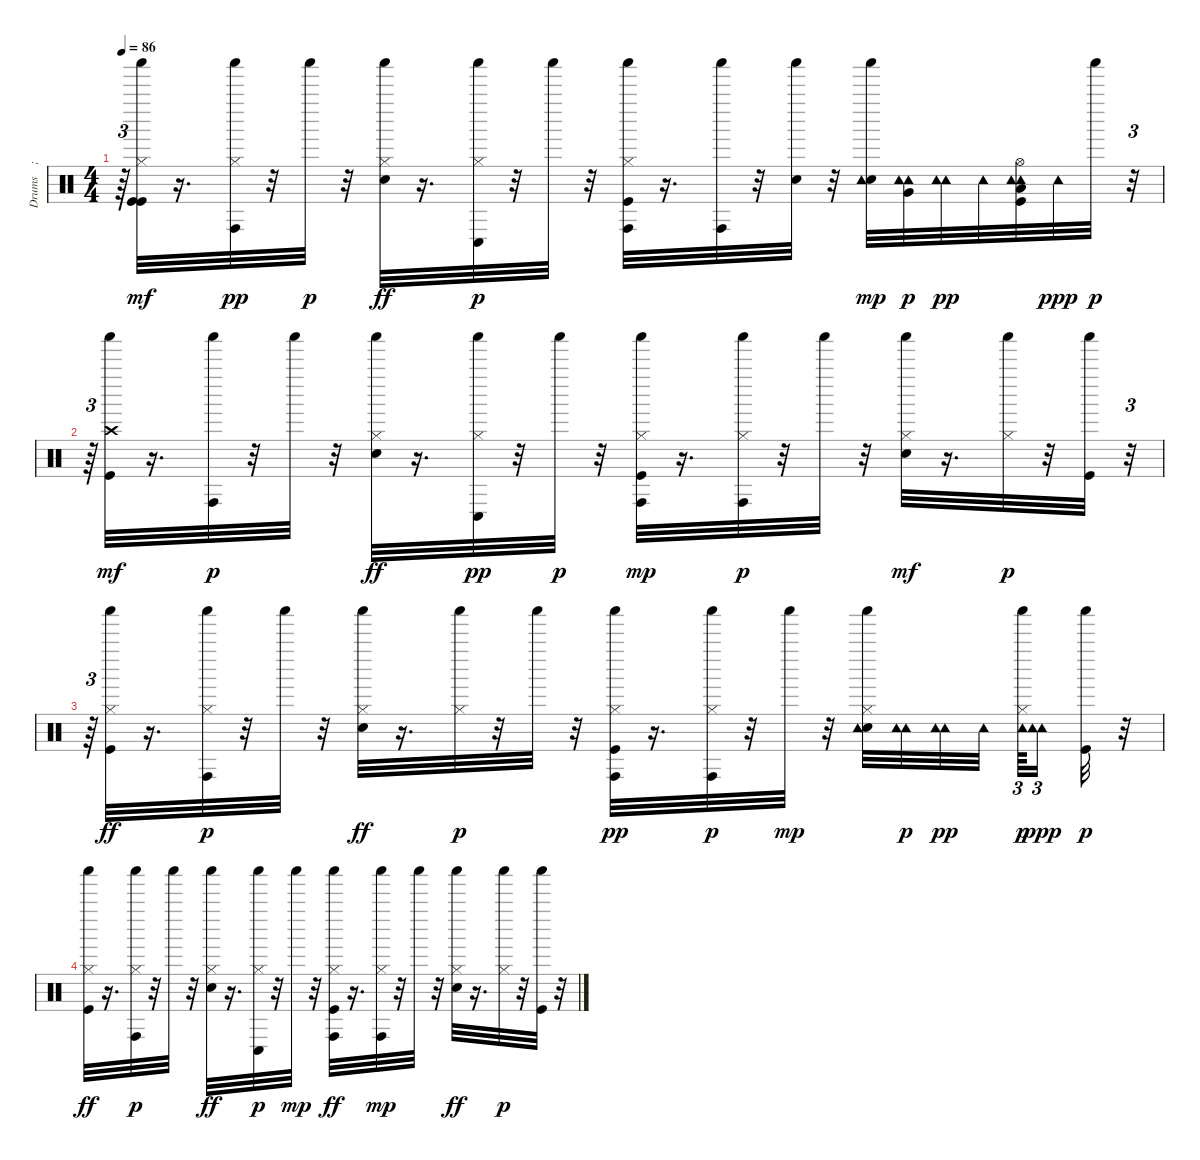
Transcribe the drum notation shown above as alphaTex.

\track ("Drums    ; Standard" "Drums    ;") {instrument percussion}
\staff {score}
\articulation defaults
\ts (4 4)
\tempo 86
\clef neutral
\ks c
r.64{tu (3 2) dy p} ("Shaker (hit)" "Kick (hit)" "Kick (hit)" "Hi-Hat (closed)").32{dy mf} r.16{d} ("Shaker (hit)" "Conga high (hit)" "Hi-Hat (closed)").32{dy pp} r.32 "Shaker (hit)".32{dy p} r.32 ("Electric Snare (hit)" "Shaker (hit)" "Hi-Hat (closed)").32{dy ff} r.16{d} ("Shaker (hit)" "Conga low (hit)" "Hi-Hat (closed)").32{dy p} r.32 "Shaker (hit)".32 r.32 ("Kick (hit)" "Shaker (hit)" "Hi-Hat (closed)" "Conga high (hit)").32 r.16{d} ("Shaker (hit)" "Conga high (hit)").32 r.32 ("Electric Snare (hit)" "Shaker (hit)").32 r.32 ("Electric Snare (hit)" "Shaker (hit)" "Tambourine (hit)").32{dy mp} ("Tambourine (hit)" "Very Low Tom (hit)" "Tambourine (hit)").32{dy p} ("Tambourine (hit)" "Tambourine (hit)").32{dy pp} "Tambourine (hit)".32 ("Tambourine (hit)" "Low Floor Tom (hit)" "Kick (hit)" "Hi-Hat (open)" "Tambourine (hit)").32 "Tambourine (hit)".32{dy ppp} "Shaker (hit)".32{dy p} r.32{tu (3 2)} |
r.64{tu (3 2)} ("Crash high (hit)" "Kick (hit)" "Shaker (hit)").32{dy mf} r.16{d} ("Shaker (hit)" "Conga high (hit)").32{dy p} r.32 "Shaker (hit)".32 r.32 ("Shaker (hit)" "Electric Snare (hit)" "Hi-Hat (closed)").32{dy ff} r.16{d} ("Shaker (hit)" "Hi-Hat (closed)" "Conga low (hit)").32{dy pp} r.32 "Shaker (hit)".32{dy p} r.32 ("Kick (hit)" "Shaker (hit)" "Conga high (hit)" "Hi-Hat (closed)").32{dy mp} r.16{d} ("Conga high (hit)" "Shaker (hit)" "Hi-Hat (closed)").32{dy p} r.32 "Shaker (hit)".32 r.32 ("Shaker (hit)" "Electric Snare (hit)" "Hi-Hat (closed)").32{dy mf} r.16{d} ("Hi-Hat (closed)" "Shaker (hit)").32{dy p} r.32 ("Shaker (hit)" "Kick (hit)").32 r.32{tu (3 2)} |
r.64{tu (3 2)} ("Kick (hit)" "Shaker (hit)" "Hi-Hat (closed)").32{dy ff} r.16{d} ("Shaker (hit)" "Hi-Hat (closed)" "Conga high (hit)").32{dy p} r.32 "Shaker (hit)".32 r.32 ("Electric Snare (hit)" "Hi-Hat (closed)" "Shaker (hit)").32{dy ff} r.16{d} ("Hi-Hat (closed)" "Shaker (hit)").32{dy p} r.32 "Shaker (hit)".32 r.32 ("Kick (hit)" "Hi-Hat (closed)" "Shaker (hit)" "Conga high (hit)").32{dy pp} r.16{d} ("Hi-Hat (closed)" "Conga high (hit)" "Shaker (hit)").32{dy p} r.32 "Shaker (hit)".32{dy mp} r.32 ("Hi-Hat (closed)" "Shaker (hit)" "Electric Snare (hit)" "Tambourine (hit)").32 ("Tambourine (hit)" "Tambourine (hit)").32{dy p} ("Tambourine (hit)" "Tambourine (hit)").32{dy pp} "Tambourine (hit)".32 ("Tambourine (hit)" "Hi-Hat (closed)" "Shaker (hit)").64{tu (3 2) dy p} ("Tambourine (hit)" "Tambourine (hit)").16{tu (3 2) dy ppp} ("Shaker (hit)" "Kick (hit)").32{dy p} r.32 |
("Kick (hit)" "Shaker (hit)" "Hi-Hat (closed)").32{dy ff} r.16{d} ("Conga high (hit)" "Shaker (hit)" "Hi-Hat (closed)").32{dy p} r.32 "Shaker (hit)".32 r.32 ("Shaker (hit)" "Electric Snare (hit)" "Hi-Hat (closed)").32{dy ff} r.16{d} ("Conga low (hit)" "Shaker (hit)" "Hi-Hat (closed)").32{dy p} r.32 "Shaker (hit)".32{dy mp} r.32 ("Kick (hit)" "Conga high (hit)" "Shaker (hit)" "Hi-Hat (closed)").32{dy ff} r.16{d} ("Conga high (hit)" "Shaker (hit)" "Hi-Hat (closed)").32{dy mp} r.32 "Shaker (hit)".32 r.32 ("Electric Snare (hit)" "Shaker (hit)" "Hi-Hat (closed)").32{dy ff} r.16{d} ("Shaker (hit)" "Hi-Hat (closed)").32{dy p} r.32 ("Shaker (hit)" "Kick (hit)").32 r.32
